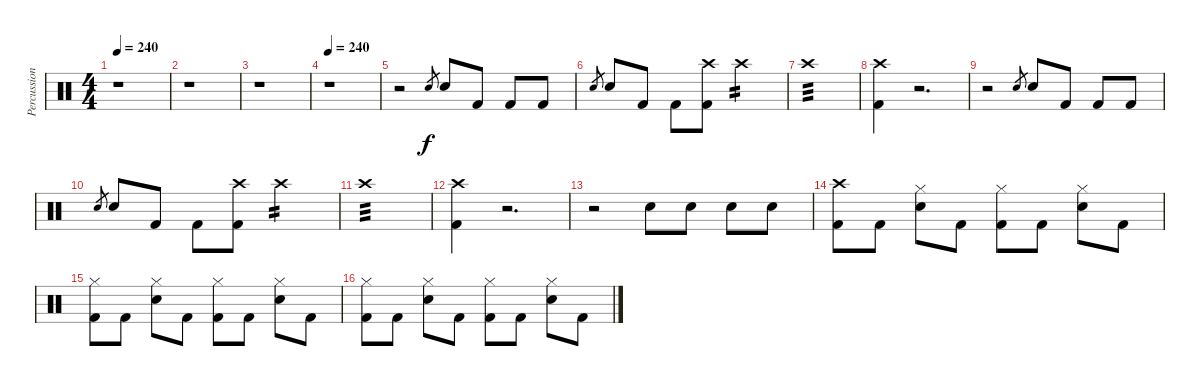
\track ("Percussion" "Percussion") {instrument percussion}
\staff {score}
\articulation defaults
\ts (4 4)
\tempo 240
\tempo 120
\tempo 240
\clef neutral
\ks c
r.1{dy f} |
r.1 |
r.1 |
\tempo 240
r.1 |
r.2 "Snare (hit) 2".8{gr} "Snare (hit) 2".8 "Kick (hit) 2".8 "Kick (hit) 2".8 "Kick (hit) 2".8 |
"Snare (hit) 2".8{gr} "Snare (hit) 2".8 "Kick (hit) 2".8 "Kick (hit) 2".8 ("Kick (hit) 2" "Crash high (hit)").8 "Crash high (hit)".2{tp 2} |
"Crash high (hit)".1{tp 3} |
("Kick (hit) 2" "Crash high (hit)").4 r.2{d} |
r.2 "Snare (hit) 2".8{gr} "Snare (hit) 2".8 "Kick (hit) 2".8 "Kick (hit) 2".8 "Kick (hit) 2".8 |
"Snare (hit) 2".8{gr} "Snare (hit) 2".8 "Kick (hit) 2".8 "Kick (hit) 2".8 ("Kick (hit) 2" "Crash high (hit)").8 "Crash high (hit)".2{tp 2} |
"Crash high (hit)".1{tp 3} |
("Kick (hit) 2" "Crash high (hit)").4 r.2{d} |
r.2 "Snare (hit) 2".8 "Snare (hit) 2".8 "Snare (hit) 2".8 "Snare (hit) 2".8 |
("Kick (hit) 2" "Crash high (hit)").8 "Kick (hit) 2".8 ("Snare (hit) 2" "Hi-Hat (closed)").8 "Kick (hit) 2".8 ("Kick (hit) 2" "Hi-Hat (closed)").8 "Kick (hit) 2".8 ("Snare (hit) 2" "Hi-Hat (closed)").8 "Kick (hit) 2".8 |
("Kick (hit) 2" "Hi-Hat (closed)").8 "Kick (hit) 2".8 ("Snare (hit) 2" "Hi-Hat (closed)").8 "Kick (hit) 2".8 ("Kick (hit) 2" "Hi-Hat (closed)").8 "Kick (hit) 2".8 ("Snare (hit) 2" "Hi-Hat (closed)").8 "Kick (hit) 2".8 |
("Kick (hit) 2" "Hi-Hat (closed)").8 "Kick (hit) 2".8 ("Snare (hit) 2" "Hi-Hat (closed)").8 "Kick (hit) 2".8 ("Kick (hit) 2" "Hi-Hat (closed)").8 "Kick (hit) 2".8 ("Snare (hit) 2" "Hi-Hat (closed)").8 "Kick (hit) 2".8
